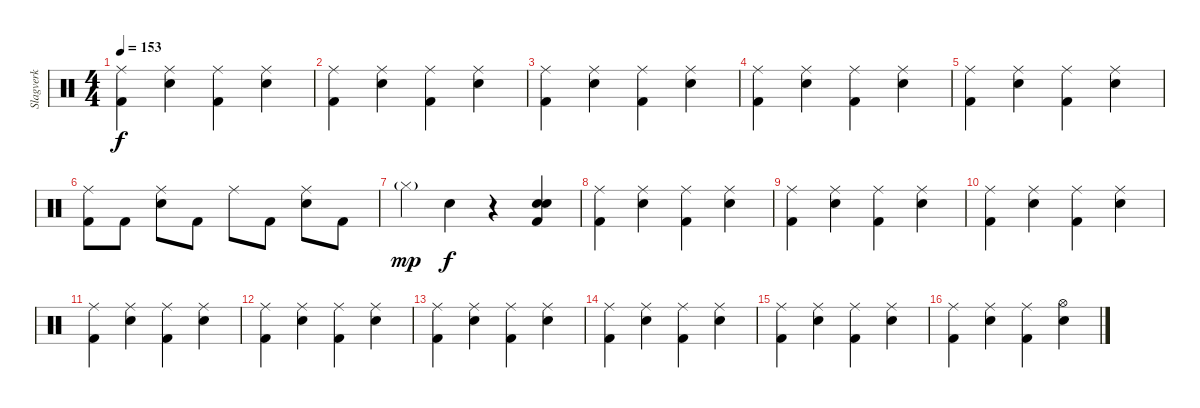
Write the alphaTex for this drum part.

\track ("Slagverk" "Slagverk") {instrument percussion}
\staff {score}
\articulation defaults
\ts (4 4)
\tempo 153
\clef neutral
\ks c
("Ride (middle)" "Kick (hit) 2").4{dy f} ("Ride (middle)" "Electric Snare (hit)").4 ("Ride (middle)" "Kick (hit) 2").4 ("Ride (middle)" "Electric Snare (hit)").4 |
("Ride (middle)" "Kick (hit) 2").4 ("Ride (middle)" "Electric Snare (hit)").4 ("Ride (middle)" "Kick (hit) 2").4 ("Ride (middle)" "Electric Snare (hit)").4 |
("Ride (middle)" "Kick (hit) 2").4 ("Ride (middle)" "Electric Snare (hit)").4 ("Ride (middle)" "Kick (hit) 2").4 ("Ride (middle)" "Electric Snare (hit)").4 |
("Ride (middle)" "Kick (hit) 2").4 ("Ride (middle)" "Electric Snare (hit)").4 ("Ride (middle)" "Kick (hit) 2").4 ("Ride (middle)" "Electric Snare (hit)").4 |
("Ride (middle)" "Kick (hit) 2").4 ("Ride (middle)" "Electric Snare (hit)").4 ("Ride (middle)" "Kick (hit) 2").4 ("Ride (middle)" "Electric Snare (hit)").4 |
("Ride (middle)" "Kick (hit) 2").8 "Kick (hit) 2".8 ("Ride (middle)" "Electric Snare (hit)").8 "Kick (hit) 2".8 "Ride (middle)".8 "Kick (hit) 2".8 ("Ride (middle)" "Electric Snare (hit)").8 "Kick (hit) 2".8 |
"Hi-Hat (closed)"{g}.4{dy mp} "Hand Clap (hit)".4{dy f} r.4 ("Hand Clap (hit)" "Electric Snare (hit)" "Kick (hit) 2").4 |
("Ride (middle)" "Kick (hit) 2").4 ("Ride (middle)" "Electric Snare (hit)").4 ("Ride (middle)" "Kick (hit) 2").4 ("Ride (middle)" "Electric Snare (hit)").4 |
("Ride (middle)" "Kick (hit) 2").4 ("Ride (middle)" "Electric Snare (hit)").4 ("Ride (middle)" "Kick (hit) 2").4 ("Ride (middle)" "Electric Snare (hit)").4 |
("Ride (middle)" "Kick (hit) 2").4 ("Ride (middle)" "Electric Snare (hit)").4 ("Ride (middle)" "Kick (hit) 2").4 ("Ride (middle)" "Electric Snare (hit)").4 |
("Ride (middle)" "Kick (hit) 2").4 ("Ride (middle)" "Electric Snare (hit)").4 ("Ride (middle)" "Kick (hit) 2").4 ("Ride (middle)" "Electric Snare (hit)").4 |
("Ride (middle)" "Kick (hit) 2").4 ("Ride (middle)" "Electric Snare (hit)").4 ("Ride (middle)" "Kick (hit) 2").4 ("Ride (middle)" "Electric Snare (hit)").4 |
("Ride (middle)" "Kick (hit) 2").4 ("Ride (middle)" "Electric Snare (hit)").4 ("Ride (middle)" "Kick (hit) 2").4 ("Ride (middle)" "Electric Snare (hit)").4 |
("Ride (middle)" "Kick (hit) 2").4 ("Ride (middle)" "Electric Snare (hit)").4 ("Ride (middle)" "Kick (hit) 2").4 ("Ride (middle)" "Electric Snare (hit)").4 |
("Ride (middle)" "Kick (hit) 2").4 ("Ride (middle)" "Electric Snare (hit)").4 ("Ride (middle)" "Kick (hit) 2").4 ("Ride (middle)" "Electric Snare (hit)").4 |
("Ride (middle)" "Kick (hit) 2").4 ("Ride (middle)" "Electric Snare (hit)").4 ("Ride (middle)" "Kick (hit) 2").4 ("Hi-Hat (open)" "Electric Snare (hit)").4
